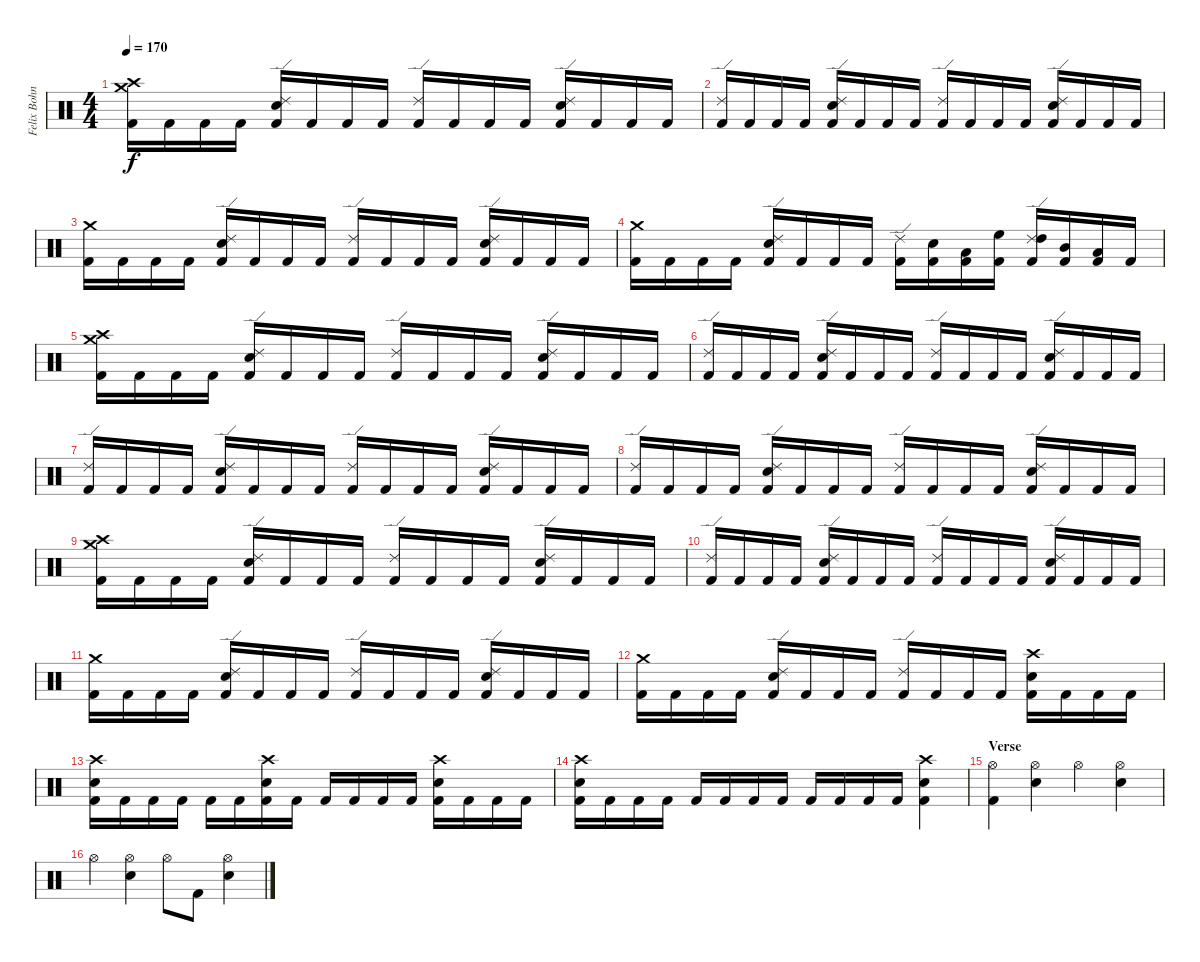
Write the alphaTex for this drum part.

\track ("Felix Bohnke" "Felix Bohn") {instrument percussion}
\staff {score}
\articulation defaults
\ts (4 4)
\tempo 170
\clef neutral
\ks c
("Crash high (hit)" "Crash medium (hit)" "Kick (hit) 2").16{dy f} "Kick (hit) 2".16 "Kick (hit) 2".16 "Kick (hit) 2".16 ("Ride (edge) 2" "Snare (hit) 2" "Kick (hit) 2").16 "Kick (hit) 2".16 "Kick (hit) 2".16 "Kick (hit) 2".16 ("Ride (edge) 2" "Kick (hit) 2").16 "Kick (hit) 2".16 "Kick (hit) 2".16 "Kick (hit) 2".16 ("Ride (edge) 2" "Snare (hit) 2" "Kick (hit) 2").16 "Kick (hit) 2".16 "Kick (hit) 2".16 "Kick (hit) 2".16 |
("Ride (edge) 2" "Kick (hit) 2").16 "Kick (hit) 2".16 "Kick (hit) 2".16 "Kick (hit) 2".16 ("Ride (edge) 2" "Snare (hit) 2" "Kick (hit) 2").16 "Kick (hit) 2".16 "Kick (hit) 2".16 "Kick (hit) 2".16 ("Ride (edge) 2" "Kick (hit) 2").16 "Kick (hit) 2".16 "Kick (hit) 2".16 "Kick (hit) 2".16 ("Ride (edge) 2" "Snare (hit) 2" "Kick (hit) 2").16 "Kick (hit) 2".16 "Kick (hit) 2".16 "Kick (hit) 2".16 |
("Crash medium (hit)" "Kick (hit) 2").16 "Kick (hit) 2".16 "Kick (hit) 2".16 "Kick (hit) 2".16 ("Ride (edge) 2" "Snare (hit) 2" "Kick (hit) 2").16 "Kick (hit) 2".16 "Kick (hit) 2".16 "Kick (hit) 2".16 ("Ride (edge) 2" "Kick (hit) 2").16 "Kick (hit) 2".16 "Kick (hit) 2".16 "Kick (hit) 2".16 ("Ride (edge) 2" "Snare (hit) 2" "Kick (hit) 2").16 "Kick (hit) 2".16 "Kick (hit) 2".16 "Kick (hit) 2".16 |
("Crash medium (hit)" "Kick (hit) 2").16 "Kick (hit) 2".16 "Kick (hit) 2".16 "Kick (hit) 2".16 ("Ride (edge) 2" "Snare (hit) 2" "Kick (hit) 2").16 "Kick (hit) 2".16 "Kick (hit) 2".16 "Kick (hit) 2".16 ("Ride (edge) 2" "Kick (hit) 2").16 ("Snare (hit) 2" "Kick (hit) 2").16 ("Low Tom (hit)" "Kick (hit) 2").16 ("High Floor Tom (hit)" "Kick (hit) 2").16 ("Ride (edge) 2" "High Tom (hit)" "Kick (hit) 2").16 ("Mid Tom (hit)" "Kick (hit) 2").16 ("Low Tom (hit)" "Kick (hit) 2").16 "Kick (hit) 2".16 |
("Crash high (hit)" "Crash medium (hit)" "Kick (hit) 2").16 "Kick (hit) 2".16 "Kick (hit) 2".16 "Kick (hit) 2".16 ("Ride (edge) 2" "Snare (hit) 2" "Kick (hit) 2").16 "Kick (hit) 2".16 "Kick (hit) 2".16 "Kick (hit) 2".16 ("Ride (edge) 2" "Kick (hit) 2").16 "Kick (hit) 2".16 "Kick (hit) 2".16 "Kick (hit) 2".16 ("Ride (edge) 2" "Snare (hit) 2" "Kick (hit) 2").16 "Kick (hit) 2".16 "Kick (hit) 2".16 "Kick (hit) 2".16 |
("Ride (edge) 2" "Kick (hit) 2").16 "Kick (hit) 2".16 "Kick (hit) 2".16 "Kick (hit) 2".16 ("Ride (edge) 2" "Snare (hit) 2" "Kick (hit) 2").16 "Kick (hit) 2".16 "Kick (hit) 2".16 "Kick (hit) 2".16 ("Ride (edge) 2" "Kick (hit) 2").16 "Kick (hit) 2".16 "Kick (hit) 2".16 "Kick (hit) 2".16 ("Ride (edge) 2" "Snare (hit) 2" "Kick (hit) 2").16 "Kick (hit) 2".16 "Kick (hit) 2".16 "Kick (hit) 2".16 |
("Ride (edge) 2" "Kick (hit) 2").16 "Kick (hit) 2".16 "Kick (hit) 2".16 "Kick (hit) 2".16 ("Ride (edge) 2" "Snare (hit) 2" "Kick (hit) 2").16 "Kick (hit) 2".16 "Kick (hit) 2".16 "Kick (hit) 2".16 ("Ride (edge) 2" "Kick (hit) 2").16 "Kick (hit) 2".16 "Kick (hit) 2".16 "Kick (hit) 2".16 ("Ride (edge) 2" "Snare (hit) 2" "Kick (hit) 2").16 "Kick (hit) 2".16 "Kick (hit) 2".16 "Kick (hit) 2".16 |
("Ride (edge) 2" "Kick (hit) 2").16 "Kick (hit) 2".16 "Kick (hit) 2".16 "Kick (hit) 2".16 ("Ride (edge) 2" "Snare (hit) 2" "Kick (hit) 2").16 "Kick (hit) 2".16 "Kick (hit) 2".16 "Kick (hit) 2".16 ("Ride (edge) 2" "Kick (hit) 2").16 "Kick (hit) 2".16 "Kick (hit) 2".16 "Kick (hit) 2".16 ("Ride (edge) 2" "Snare (hit) 2" "Kick (hit) 2").16 "Kick (hit) 2".16 "Kick (hit) 2".16 "Kick (hit) 2".16 |
("Crash high (hit)" "Crash medium (hit)" "Kick (hit) 2").16 "Kick (hit) 2".16 "Kick (hit) 2".16 "Kick (hit) 2".16 ("Ride (edge) 2" "Snare (hit) 2" "Kick (hit) 2").16 "Kick (hit) 2".16 "Kick (hit) 2".16 "Kick (hit) 2".16 ("Ride (edge) 2" "Kick (hit) 2").16 "Kick (hit) 2".16 "Kick (hit) 2".16 "Kick (hit) 2".16 ("Ride (edge) 2" "Snare (hit) 2" "Kick (hit) 2").16 "Kick (hit) 2".16 "Kick (hit) 2".16 "Kick (hit) 2".16 |
("Ride (edge) 2" "Kick (hit) 2").16 "Kick (hit) 2".16 "Kick (hit) 2".16 "Kick (hit) 2".16 ("Ride (edge) 2" "Snare (hit) 2" "Kick (hit) 2").16 "Kick (hit) 2".16 "Kick (hit) 2".16 "Kick (hit) 2".16 ("Ride (edge) 2" "Kick (hit) 2").16 "Kick (hit) 2".16 "Kick (hit) 2".16 "Kick (hit) 2".16 ("Ride (edge) 2" "Snare (hit) 2" "Kick (hit) 2").16 "Kick (hit) 2".16 "Kick (hit) 2".16 "Kick (hit) 2".16 |
("Crash medium (hit)" "Kick (hit) 2").16 "Kick (hit) 2".16 "Kick (hit) 2".16 "Kick (hit) 2".16 ("Ride (edge) 2" "Snare (hit) 2" "Kick (hit) 2").16 "Kick (hit) 2".16 "Kick (hit) 2".16 "Kick (hit) 2".16 ("Ride (edge) 2" "Kick (hit) 2").16 "Kick (hit) 2".16 "Kick (hit) 2".16 "Kick (hit) 2".16 ("Ride (edge) 2" "Snare (hit) 2" "Kick (hit) 2").16 "Kick (hit) 2".16 "Kick (hit) 2".16 "Kick (hit) 2".16 |
("Crash medium (hit)" "Kick (hit) 2").16 "Kick (hit) 2".16 "Kick (hit) 2".16 "Kick (hit) 2".16 ("Ride (edge) 2" "Snare (hit) 2" "Kick (hit) 2").16 "Kick (hit) 2".16 "Kick (hit) 2".16 "Kick (hit) 2".16 ("Ride (edge) 2" "Kick (hit) 2").16 "Kick (hit) 2".16 "Kick (hit) 2".16 "Kick (hit) 2".16 ("Crash high (hit)" "Snare (hit) 2" "Kick (hit) 2").16 "Kick (hit) 2".16 "Kick (hit) 2".16 "Kick (hit) 2".16 |
("Crash high (hit)" "Snare (hit) 2" "Kick (hit) 2").16 "Kick (hit) 2".16 "Kick (hit) 2".16 "Kick (hit) 2".16 "Kick (hit) 2".16 "Kick (hit) 2".16 ("Crash high (hit)" "Snare (hit) 2" "Kick (hit) 2").16 "Kick (hit) 2".16 "Kick (hit) 2".16 "Kick (hit) 2".16 "Kick (hit) 2".16 "Kick (hit) 2".16 ("Crash high (hit)" "Snare (hit) 2" "Kick (hit) 2").16 "Kick (hit) 2".16 "Kick (hit) 2".16 "Kick (hit) 2".16 |
("Crash high (hit)" "Snare (hit) 2" "Kick (hit) 2").16 "Kick (hit) 2".16 "Kick (hit) 2".16 "Kick (hit) 2".16 "Kick (hit) 2".16 "Kick (hit) 2".16 "Kick (hit) 2".16 "Kick (hit) 2".16 "Kick (hit) 2".16 "Kick (hit) 2".16 "Kick (hit) 2".16 "Kick (hit) 2".16 ("Crash high (hit)" "Snare (hit) 2" "Kick (hit) 2").4 |
\section ("" "Verse")
("Hi-Hat (open)" "Kick (hit) 2").4 ("Hi-Hat (open)" "Snare (hit) 2").4 "Hi-Hat (open)".4 ("Hi-Hat (open)" "Snare (hit) 2").4 |
"Hi-Hat (open)".4 ("Hi-Hat (open)" "Snare (hit) 2").4 "Hi-Hat (open)".8 "Kick (hit) 2".8 ("Hi-Hat (open)" "Snare (hit) 2").4
